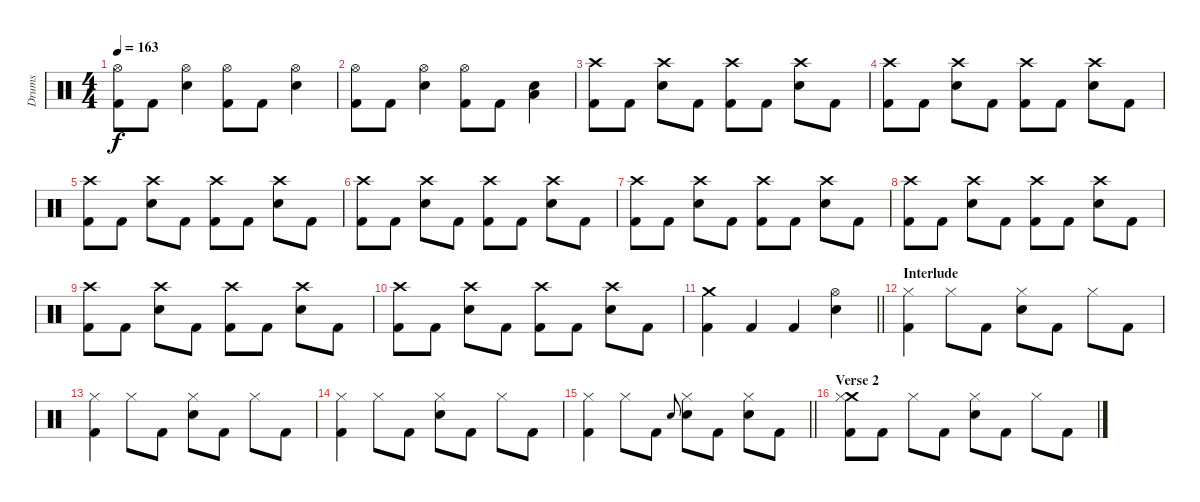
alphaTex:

\track ("Drums" "Drums") {instrument percussion}
\staff {score}
\articulation defaults
\ts (4 4)
\tempo 163
\clef neutral
\ks c
("Hi-Hat (open)" "Kick (hit) 2").8{dy f} "Kick (hit) 2".8 ("Hi-Hat (open)" "Snare (hit) 2").4 ("Hi-Hat (open)" "Kick (hit) 2").8 "Kick (hit) 2".8 ("Hi-Hat (open)" "Snare (hit) 2").4 |
("Hi-Hat (open)" "Kick (hit) 2").8 "Kick (hit) 2".8 ("Hi-Hat (open)" "Snare (hit) 2").4 ("Hi-Hat (open)" "Kick (hit) 2").8 "Kick (hit) 2".8 ("Low Floor Tom (hit)" "Snare (hit) 2").4 |
("Crash high (hit)" "Kick (hit) 2").8 "Kick (hit) 2".8 ("Crash high (hit)" "Snare (hit) 2").8 "Kick (hit) 2".8 ("Crash high (hit)" "Kick (hit) 2").8 "Kick (hit) 2".8 ("Crash high (hit)" "Snare (hit) 2").8 "Kick (hit) 2".8 |
("Crash high (hit)" "Kick (hit) 2").8 "Kick (hit) 2".8 ("Crash high (hit)" "Snare (hit) 2").8 "Kick (hit) 2".8 ("Crash high (hit)" "Kick (hit) 2").8 "Kick (hit) 2".8 ("Crash high (hit)" "Snare (hit) 2").8 "Kick (hit) 2".8 |
("Crash high (hit)" "Kick (hit) 2").8 "Kick (hit) 2".8 ("Crash high (hit)" "Snare (hit) 2").8 "Kick (hit) 2".8 ("Crash high (hit)" "Kick (hit) 2").8 "Kick (hit) 2".8 ("Crash high (hit)" "Snare (hit) 2").8 "Kick (hit) 2".8 |
("Crash high (hit)" "Kick (hit) 2").8 "Kick (hit) 2".8 ("Crash high (hit)" "Snare (hit) 2").8 "Kick (hit) 2".8 ("Crash high (hit)" "Kick (hit) 2").8 "Kick (hit) 2".8 ("Crash high (hit)" "Snare (hit) 2").8 "Kick (hit) 2".8 |
("Crash high (hit)" "Kick (hit) 2").8 "Kick (hit) 2".8 ("Crash high (hit)" "Snare (hit) 2").8 "Kick (hit) 2".8 ("Crash high (hit)" "Kick (hit) 2").8 "Kick (hit) 2".8 ("Crash high (hit)" "Snare (hit) 2").8 "Kick (hit) 2".8 |
("Crash high (hit)" "Kick (hit) 2").8 "Kick (hit) 2".8 ("Crash high (hit)" "Snare (hit) 2").8 "Kick (hit) 2".8 ("Crash high (hit)" "Kick (hit) 2").8 "Kick (hit) 2".8 ("Crash high (hit)" "Snare (hit) 2").8 "Kick (hit) 2".8 |
("Crash high (hit)" "Kick (hit) 2").8 "Kick (hit) 2".8 ("Crash high (hit)" "Snare (hit) 2").8 "Kick (hit) 2".8 ("Crash high (hit)" "Kick (hit) 2").8 "Kick (hit) 2".8 ("Crash high (hit)" "Snare (hit) 2").8 "Kick (hit) 2".8 |
("Crash high (hit)" "Kick (hit) 2").8 "Kick (hit) 2".8 ("Crash high (hit)" "Snare (hit) 2").8 "Kick (hit) 2".8 ("Crash high (hit)" "Kick (hit) 2").8 "Kick (hit) 2".8 ("Crash high (hit)" "Snare (hit) 2").8 "Kick (hit) 2".8 |
\barLineRight lightlight
("Crash medium (hit)" "Kick (hit) 2").4 "Kick (hit) 2".4 "Kick (hit) 2".4 ("Snare (hit) 2" "Hi-Hat (open)").4 |
\section ("" "Interlude")
("Hi-Hat (closed)" "Kick (hit) 2").4 "Hi-Hat (closed)".8 "Kick (hit) 2".8 ("Hi-Hat (closed)" "Snare (hit) 2").8 "Kick (hit) 2".8 "Hi-Hat (closed)".8 "Kick (hit) 2".8 |
("Hi-Hat (closed)" "Kick (hit) 2").4 "Hi-Hat (closed)".8 "Kick (hit) 2".8 ("Hi-Hat (closed)" "Snare (hit) 2").8 "Kick (hit) 2".8 "Hi-Hat (closed)".8 "Kick (hit) 2".8 |
("Hi-Hat (closed)" "Kick (hit) 2").4 "Hi-Hat (closed)".8 "Kick (hit) 2".8 ("Hi-Hat (closed)" "Snare (hit) 2").8 "Kick (hit) 2".8 "Hi-Hat (closed)".8 "Kick (hit) 2".8 |
\barLineRight lightlight
("Hi-Hat (closed)" "Kick (hit) 2").4 "Hi-Hat (closed)".8 "Kick (hit) 2".8 "Snare (hit) 2".8{gr onbeat} ("Hi-Hat (closed)" "Snare (hit) 2").8 "Kick (hit) 2".8 ("Hi-Hat (closed)" "Snare (hit) 2").8 "Kick (hit) 2".8 |
\section ("" "Verse 2")
("Crash medium (hit)" "Hi-Hat (closed)" "Kick (hit) 2").8 "Kick (hit) 2".8 "Hi-Hat (closed)".8 "Kick (hit) 2".8 ("Hi-Hat (closed)" "Snare (hit) 2").8 "Kick (hit) 2".8 "Hi-Hat (closed)".8 "Kick (hit) 2".8
